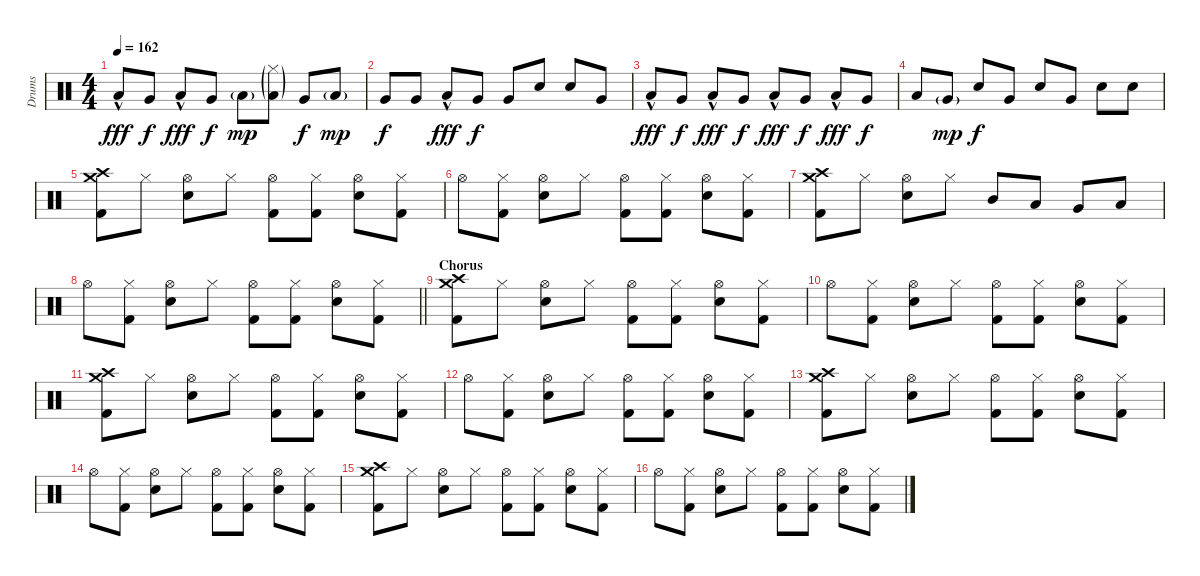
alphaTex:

\track ("Drums" "Drums") {instrument percussion}
\staff {score}
\articulation defaults
\ts (4 4)
\tempo 162
\clef neutral
\ks c "Low Floor Tom (hit)"{hac}.8{dy fff} "Very Low Tom (hit)".8{dy f} "Low Floor Tom (hit)"{hac}.8{dy fff} "Very Low Tom (hit)".8{dy f} "Low Floor Tom (hit)"{g}.8{dy mp}
("Hi-Hat (closed)"{g} "Low Floor Tom (hit)"{g}).8 "Very Low Tom (hit)".8{dy f} "Low Floor Tom (hit)"{g}.8{dy mp} |
"Very Low Tom (hit)".8{dy f} "Very Low Tom (hit)".8 "Low Tom (hit)"{hac}.8{dy fff} "Very Low Tom (hit)".8{dy f} "Very Low Tom (hit)".8 "Snare (hit) 2".8 "Snare (hit) 2".8 "Very Low Tom (hit)".8 |
"Low Floor Tom (hit)"{hac}.8{dy fff} "Very Low Tom (hit)".8{dy f} "Low Floor Tom (hit)"{hac}.8{dy fff} "Very Low Tom (hit)".8{dy f} "Low Floor Tom (hit)"{hac}.8{dy fff} "Very Low Tom (hit)".8{dy f} "Low Floor Tom (hit)"{hac}.8{dy fff} "Very Low Tom (hit)".8{dy f} |
"Low Floor Tom (hit)".8 "Very Low Tom (hit)"{g}.8{dy mp} "Snare (hit) 2".8{dy f} "Very Low Tom (hit)".8 "Snare (hit) 2".8 "Very Low Tom (hit)".8 "Snare (hit) 2".8 "Snare (hit) 2".8 |
("Crash high (hit)" "Crash medium (hit)" "Kick (hit) 2").8 "Hi-Hat (closed)".8 ("Hi-Hat (open)" "Snare (hit) 2").8 "Hi-Hat (closed)".8 ("Hi-Hat (open)" "Kick (hit) 2").8 ("Hi-Hat (closed)" "Kick (hit) 2").8 ("Hi-Hat (open)" "Snare (hit) 2").8 ("Hi-Hat (closed)" "Kick (hit) 2").8 |
"Hi-Hat (open)".8 ("Hi-Hat (closed)" "Kick (hit) 2").8 ("Hi-Hat (open)" "Snare (hit) 2").8 "Hi-Hat (closed)".8 ("Hi-Hat (open)" "Kick (hit) 2").8 ("Hi-Hat (closed)" "Kick (hit) 2").8 ("Hi-Hat (open)" "Snare (hit) 2").8 ("Hi-Hat (closed)" "Kick (hit) 2").8 |
("Crash high (hit)" "Crash medium (hit)" "Kick (hit) 2").8 "Hi-Hat (closed)".8 ("Hi-Hat (open)" "Snare (hit) 2").8 "Hi-Hat (closed)".8 "Mid Tom (hit)".8 "Low Tom (hit)".8 "Very Low Tom (hit)".8 "Low Floor Tom (hit)".8 |
\barLineRight lightlight "Hi-Hat (open)".8
("Hi-Hat (closed)" "Kick (hit) 2").8 ("Hi-Hat (open)" "Snare (hit) 2").8 "Hi-Hat (closed)".8 ("Hi-Hat (open)" "Kick (hit) 2").8 ("Hi-Hat (closed)" "Kick (hit) 2").8 ("Hi-Hat (open)" "Snare (hit) 2").8 ("Hi-Hat (closed)" "Kick (hit) 2").8 |
\section ("" "Chorus")
("Crash high (hit)" "Crash medium (hit)" "Kick (hit) 2").8 "Hi-Hat (closed)".8 ("Hi-Hat (open)" "Snare (hit) 2").8 "Hi-Hat (closed)".8 ("Hi-Hat (open)" "Kick (hit) 2").8 ("Hi-Hat (closed)" "Kick (hit) 2").8 ("Hi-Hat (open)" "Snare (hit) 2").8 ("Hi-Hat (closed)" "Kick (hit) 2").8 |
"Hi-Hat (open)".8 ("Hi-Hat (closed)" "Kick (hit) 2").8 ("Hi-Hat (open)" "Snare (hit) 2").8 "Hi-Hat (closed)".8 ("Hi-Hat (open)" "Kick (hit) 2").8 ("Hi-Hat (closed)" "Kick (hit) 2").8 ("Hi-Hat (open)" "Snare (hit) 2").8 ("Hi-Hat (closed)" "Kick (hit) 2").8 |
("Crash high (hit)" "Crash medium (hit)" "Kick (hit) 2").8 "Hi-Hat (closed)".8 ("Hi-Hat (open)" "Snare (hit) 2").8 "Hi-Hat (closed)".8 ("Hi-Hat (open)" "Kick (hit) 2").8 ("Hi-Hat (closed)" "Kick (hit) 2").8 ("Hi-Hat (open)" "Snare (hit) 2").8 ("Hi-Hat (closed)" "Kick (hit) 2").8 |
"Hi-Hat (open)".8 ("Hi-Hat (closed)" "Kick (hit) 2").8 ("Hi-Hat (open)" "Snare (hit) 2").8 "Hi-Hat (closed)".8 ("Hi-Hat (open)" "Kick (hit) 2").8 ("Hi-Hat (closed)" "Kick (hit) 2").8 ("Hi-Hat (open)" "Snare (hit) 2").8 ("Hi-Hat (closed)" "Kick (hit) 2").8 |
("Crash high (hit)" "Crash medium (hit)" "Kick (hit) 2").8 "Hi-Hat (closed)".8 ("Hi-Hat (open)" "Snare (hit) 2").8 "Hi-Hat (closed)".8 ("Hi-Hat (open)" "Kick (hit) 2").8 ("Hi-Hat (closed)" "Kick (hit) 2").8 ("Hi-Hat (open)" "Snare (hit) 2").8 ("Hi-Hat (closed)" "Kick (hit) 2").8 |
"Hi-Hat (open)".8 ("Hi-Hat (closed)" "Kick (hit) 2").8 ("Hi-Hat (open)" "Snare (hit) 2").8 "Hi-Hat (closed)".8 ("Hi-Hat (open)" "Kick (hit) 2").8 ("Hi-Hat (closed)" "Kick (hit) 2").8 ("Hi-Hat (open)" "Snare (hit) 2").8 ("Hi-Hat (closed)" "Kick (hit) 2").8 |
("Crash high (hit)" "Crash medium (hit)" "Kick (hit) 2").8 "Hi-Hat (closed)".8 ("Hi-Hat (open)" "Snare (hit) 2").8 "Hi-Hat (closed)".8 ("Hi-Hat (open)" "Kick (hit) 2").8 ("Hi-Hat (closed)" "Kick (hit) 2").8 ("Hi-Hat (open)" "Snare (hit) 2").8 ("Hi-Hat (closed)" "Kick (hit) 2").8 |
"Hi-Hat (open)".8 ("Hi-Hat (closed)" "Kick (hit) 2").8 ("Hi-Hat (open)" "Snare (hit) 2").8 "Hi-Hat (closed)".8 ("Hi-Hat (open)" "Kick (hit) 2").8 ("Hi-Hat (closed)" "Kick (hit) 2").8 ("Hi-Hat (open)" "Snare (hit) 2").8 ("Hi-Hat (closed)" "Kick (hit) 2").8
